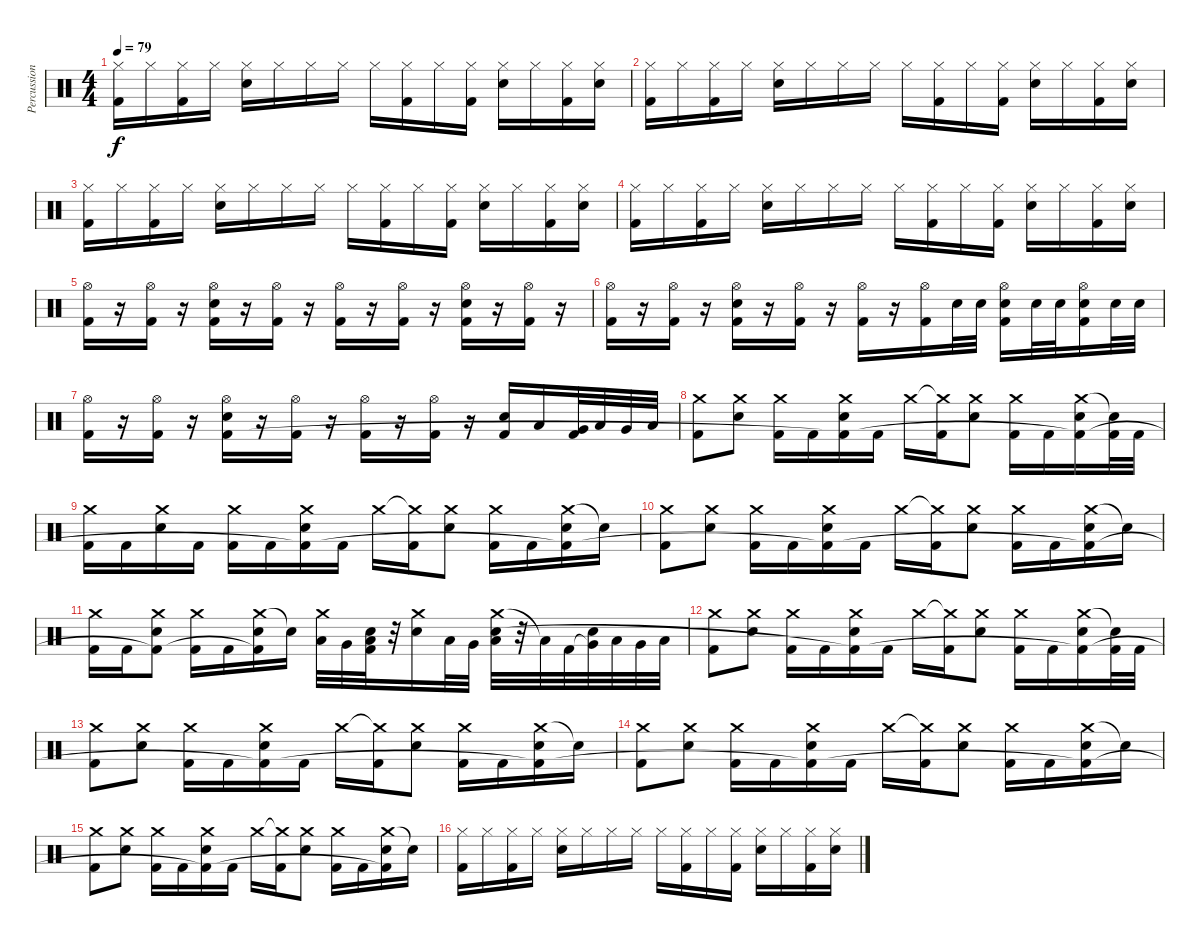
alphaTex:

\track ("Percussion" "Percussion") {instrument percussion}
\staff {score}
\articulation defaults
\ts (4 4)
\tempo 79
\clef neutral
\ks c
("Hi-Hat (closed)" "Kick (hit) 2").16{dy f} "Hi-Hat (closed)".16 ("Hi-Hat (closed)" "Kick (hit) 2").16 "Hi-Hat (closed)".16 ("Hi-Hat (closed)" "Snare (hit) 2").16 "Hi-Hat (closed)".16 "Hi-Hat (closed)".16 "Hi-Hat (closed)".16 "Hi-Hat (closed)".16 ("Hi-Hat (closed)" "Kick (hit) 2").16 "Hi-Hat (closed)".16 ("Hi-Hat (closed)" "Kick (hit) 2").16 ("Hi-Hat (closed)" "Snare (hit) 2").16 "Hi-Hat (closed)".16 ("Hi-Hat (closed)" "Kick (hit) 2").16 ("Hi-Hat (closed)" "Snare (hit) 2").16 |
("Hi-Hat (closed)" "Kick (hit) 2").16 "Hi-Hat (closed)".16 ("Hi-Hat (closed)" "Kick (hit) 2").16 "Hi-Hat (closed)".16 ("Hi-Hat (closed)" "Snare (hit) 2").16 "Hi-Hat (closed)".16 "Hi-Hat (closed)".16 "Hi-Hat (closed)".16 "Hi-Hat (closed)".16 ("Hi-Hat (closed)" "Kick (hit) 2").16 "Hi-Hat (closed)".16 ("Hi-Hat (closed)" "Kick (hit) 2").16 ("Hi-Hat (closed)" "Snare (hit) 2").16 "Hi-Hat (closed)".16 ("Hi-Hat (closed)" "Kick (hit) 2").16 ("Hi-Hat (closed)" "Snare (hit) 2").16 |
("Hi-Hat (closed)" "Kick (hit) 2").16 "Hi-Hat (closed)".16 ("Hi-Hat (closed)" "Kick (hit) 2").16 "Hi-Hat (closed)".16 ("Hi-Hat (closed)" "Snare (hit) 2").16 "Hi-Hat (closed)".16 "Hi-Hat (closed)".16 "Hi-Hat (closed)".16 "Hi-Hat (closed)".16 ("Hi-Hat (closed)" "Kick (hit) 2").16 "Hi-Hat (closed)".16 ("Hi-Hat (closed)" "Kick (hit) 2").16 ("Hi-Hat (closed)" "Snare (hit) 2").16 "Hi-Hat (closed)".16 ("Hi-Hat (closed)" "Kick (hit) 2").16 ("Hi-Hat (closed)" "Snare (hit) 2").16 |
("Hi-Hat (closed)" "Kick (hit) 2").16 "Hi-Hat (closed)".16 ("Hi-Hat (closed)" "Kick (hit) 2").16 "Hi-Hat (closed)".16 ("Hi-Hat (closed)" "Snare (hit) 2").16 "Hi-Hat (closed)".16 "Hi-Hat (closed)".16 "Hi-Hat (closed)".16 "Hi-Hat (closed)".16 ("Hi-Hat (closed)" "Kick (hit) 2").16 "Hi-Hat (closed)".16 ("Hi-Hat (closed)" "Kick (hit) 2").16 ("Hi-Hat (closed)" "Snare (hit) 2").16 "Hi-Hat (closed)".16 ("Hi-Hat (closed)" "Kick (hit) 2").16 ("Hi-Hat (closed)" "Snare (hit) 2").16 |
("Hi-Hat (open)" "Kick (hit) 2").16 r.16 ("Hi-Hat (open)" "Kick (hit) 2").16 r.16 ("Hi-Hat (open)" "Snare (hit) 2" "Kick (hit) 2").16 r.16 ("Hi-Hat (open)" "Kick (hit) 2").16 r.16 ("Hi-Hat (open)" "Kick (hit) 2").16 r.16 ("Hi-Hat (open)" "Kick (hit) 2").16 r.16 ("Hi-Hat (open)" "Snare (hit) 2" "Kick (hit) 2").16 r.16 ("Hi-Hat (open)" "Kick (hit) 2").16 r.16 |
("Hi-Hat (open)" "Kick (hit) 2").16 r.16 ("Hi-Hat (open)" "Kick (hit) 2").16 r.16 ("Hi-Hat (open)" "Snare (hit) 2" "Kick (hit) 2").16 r.16 ("Hi-Hat (open)" "Kick (hit) 2").16 r.16 ("Hi-Hat (open)" "Kick (hit) 2").16 r.16 ("Hi-Hat (open)" "Kick (hit) 2").16 "Snare (hit) 2".32 "Snare (hit) 2".32 ("Hi-Hat (open)" "Snare (hit) 2" "Kick (hit) 2").16 "Snare (hit) 2".32 "Snare (hit) 2".32 ("Hi-Hat (open)" "Snare (hit) 2" "Kick (hit) 2").16 "Snare (hit) 2".32 "Snare (hit) 2".32 |
("Hi-Hat (open)" "Kick (hit) 2").16 r.16 ("Hi-Hat (open)" "Kick (hit) 2").16 r.16 ("Hi-Hat (open)" "Snare (hit) 2" "Kick (hit) 2").16 r.16 ("Hi-Hat (open)" "Kick (hit) 2").16 r.16 ("Hi-Hat (open)" "Kick (hit) 2").16 r.16 ("Hi-Hat (open)" "Kick (hit) 2").16 r.16 ("Snare (hit) 2" "Kick (hit) 2").16 "Low Tom (hit)".16 ("Very Low Tom (hit)" "Kick (hit) 2").32 "Low Tom (hit)".32 "Very Low Tom (hit)".32 "Low Floor Tom (hit)".32 |
("Crash medium (hit)" "Kick (hit) 2").8 ("Crash medium (hit)" "Snare (hit) 2").8 ("Crash medium (hit)" "Kick (hit) 2").16 "Kick (hit) 2".16 ("Crash medium (hit)" "Snare (hit) 2" "Kick (hit) 2"{t}).16 "Kick (hit) 2".16 "Crash medium (hit)".16 ("Crash medium (hit)"{t} "Kick (hit) 2").16 ("Crash medium (hit)" "Snare (hit) 2").8 ("Crash medium (hit)" "Kick (hit) 2").16 "Kick (hit) 2".16 ("Crash medium (hit)" "Snare (hit) 2" "Kick (hit) 2"{t}).16 ("Snare (hit)"{t} "Kick (hit) 2").32 "Kick (hit) 2".32 |
("Crash medium (hit)" "Kick (hit) 2").16 "Kick (hit) 2".16 ("Crash medium (hit)" "Snare (hit) 2").16 "Kick (hit) 2".16 ("Crash medium (hit)" "Kick (hit) 2").16 "Kick (hit) 2".16 ("Crash medium (hit)" "Snare (hit) 2" "Kick (hit) 2"{t}).16 "Kick (hit) 2".16 "Crash medium (hit)".16 ("Crash medium (hit)"{t} "Kick (hit) 2").16 ("Crash medium (hit)" "Snare (hit) 2").8 ("Crash medium (hit)" "Kick (hit) 2").16 "Kick (hit) 2".16 ("Crash medium (hit)" "Snare (hit) 2" "Kick (hit) 2"{t}).16 "Snare (hit)"{t}.16 |
("Crash medium (hit)" "Kick (hit) 2").8 ("Crash medium (hit)" "Snare (hit) 2").8 ("Crash medium (hit)" "Kick (hit) 2").16 "Kick (hit) 2".16 ("Crash medium (hit)" "Snare (hit) 2" "Kick (hit) 2"{t}).16 "Kick (hit) 2".16 "Crash medium (hit)".16 ("Crash medium (hit)"{t} "Kick (hit) 2").16 ("Crash medium (hit)" "Snare (hit) 2").8 ("Crash medium (hit)" "Kick (hit) 2").16 "Kick (hit) 2".16 ("Crash medium (hit)" "Snare (hit) 2" "Kick (hit) 2"{t}).16 "Snare (hit)"{t}.16 |
("Crash medium (hit)" "Kick (hit) 2").16 "Kick (hit) 2".16 ("Crash medium (hit)" "Snare (hit) 2" "Kick (hit) 2"{t}).8 ("Crash medium (hit)" "Kick (hit) 2").16 "Kick (hit) 2".16 ("Crash medium (hit)" "Snare (hit) 2" "Kick (hit) 2"{t}).16 "Snare (hit)"{t}.16 ("Crash medium (hit)" "Low Tom (hit)").32 "Very Low Tom (hit)".32 ("Low Floor Tom (hit)" "Snare (hit) 2" "Kick (hit) 2").32 r.32 ("Crash medium (hit)" "Snare (hit) 2").16 "Low Tom (hit)".32 "Very Low Tom (hit)".32 ("Crash medium (hit)" "Low Tom (hit)" "Snare (hit) 2").32 r.32 "Low Floor Tom (hit)"{t}.32 "Kick (hit) 2".32 ("Very Low Tom (hit)"{t} "Snare (hit) 2").32 "Low Tom (hit)".32 "Very Low Tom (hit)".32 "Low Floor Tom (hit)".32 |
("Crash medium (hit)" "Kick (hit) 2").8 ("Crash medium (hit)" "Snare (hit) 2").8 ("Crash medium (hit)" "Kick (hit) 2").16 "Kick (hit) 2".16 ("Crash medium (hit)" "Snare (hit) 2" "Kick (hit) 2"{t}).16 "Kick (hit) 2".16 "Crash medium (hit)".16 ("Crash medium (hit)"{t} "Kick (hit) 2").16 ("Crash medium (hit)" "Snare (hit) 2").8 ("Crash medium (hit)" "Kick (hit) 2").16 "Kick (hit) 2".16 ("Crash medium (hit)" "Snare (hit) 2" "Kick (hit) 2"{t}).16 ("Snare (hit)"{t} "Kick (hit) 2").32 "Kick (hit) 2".32 |
("Crash medium (hit)" "Kick (hit) 2").8 ("Crash medium (hit)" "Snare (hit) 2").8 ("Crash medium (hit)" "Kick (hit) 2").16 "Kick (hit) 2".16 ("Crash medium (hit)" "Snare (hit) 2" "Kick (hit) 2"{t}).16 "Kick (hit) 2".16 "Crash medium (hit)".16 ("Crash medium (hit)"{t} "Kick (hit) 2").16 ("Crash medium (hit)" "Snare (hit) 2").8 ("Crash medium (hit)" "Kick (hit) 2").16 "Kick (hit) 2".16 ("Crash medium (hit)" "Snare (hit) 2" "Kick (hit) 2"{t}).16 "Snare (hit)"{t}.16 |
("Crash medium (hit)" "Kick (hit) 2").8 ("Crash medium (hit)" "Snare (hit) 2").8 ("Crash medium (hit)" "Kick (hit) 2").16 "Kick (hit) 2".16 ("Crash medium (hit)" "Snare (hit) 2" "Kick (hit) 2"{t}).16 "Kick (hit) 2".16 "Crash medium (hit)".16 ("Crash medium (hit)"{t} "Kick (hit) 2").16 ("Crash medium (hit)" "Snare (hit) 2").8 ("Crash medium (hit)" "Kick (hit) 2").16 "Kick (hit) 2".16 ("Crash medium (hit)" "Snare (hit) 2" "Kick (hit) 2"{t}).16 "Snare (hit)"{t}.16 |
("Crash medium (hit)" "Kick (hit) 2").8 ("Crash medium (hit)" "Snare (hit) 2").8 ("Crash medium (hit)" "Kick (hit) 2").16 "Kick (hit) 2".16 ("Crash medium (hit)" "Snare (hit) 2" "Kick (hit) 2"{t}).16 "Kick (hit) 2".16 "Crash medium (hit)".16 ("Crash medium (hit)"{t} "Kick (hit) 2").16 ("Crash medium (hit)" "Snare (hit) 2").8 ("Crash medium (hit)" "Kick (hit) 2").16 "Kick (hit) 2".16 ("Crash medium (hit)" "Snare (hit) 2" "Kick (hit) 2"{t}).16 "Snare (hit)"{t}.16 |
("Hi-Hat (closed)" "Kick (hit) 2").16 "Hi-Hat (closed)".16 ("Hi-Hat (closed)" "Kick (hit) 2").16 "Hi-Hat (closed)".16 ("Hi-Hat (closed)" "Snare (hit) 2").16 "Hi-Hat (closed)".16 "Hi-Hat (closed)".16 "Hi-Hat (closed)".16 "Hi-Hat (closed)".16 ("Hi-Hat (closed)" "Kick (hit) 2").16 "Hi-Hat (closed)".16 ("Hi-Hat (closed)" "Kick (hit) 2").16 ("Hi-Hat (closed)" "Snare (hit) 2").16 "Hi-Hat (closed)".16 ("Hi-Hat (closed)" "Kick (hit) 2").16 ("Hi-Hat (closed)" "Snare (hit) 2").16
